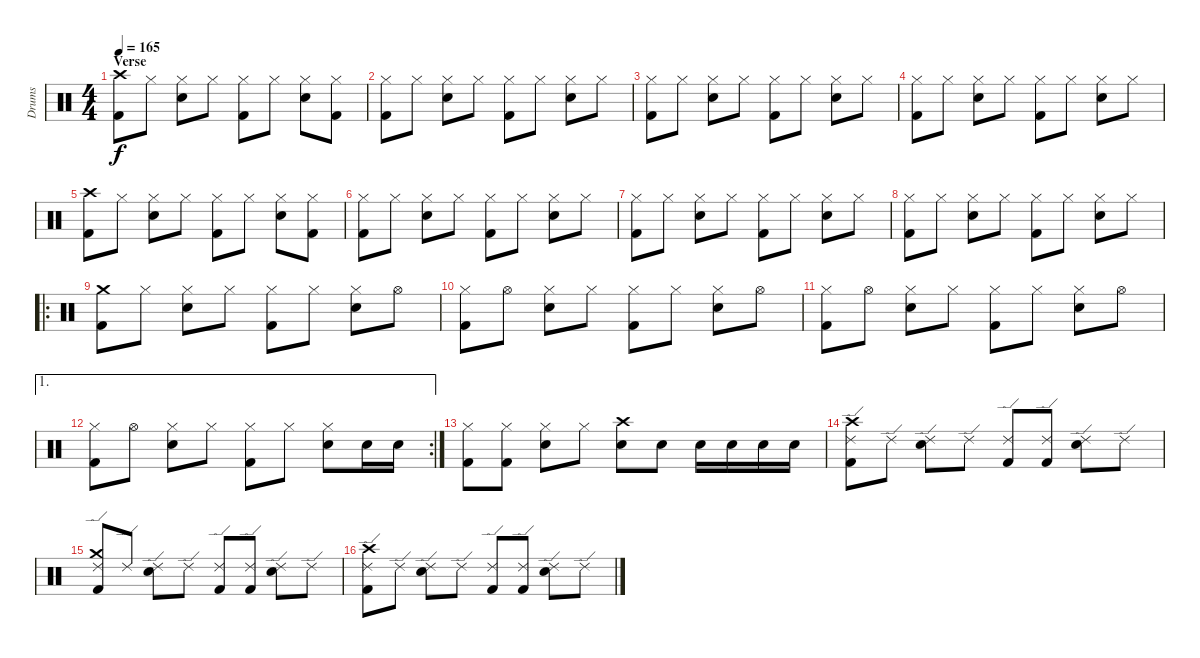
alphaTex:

\track ("Drums" "Drums") {instrument percussion}
\staff {score}
\articulation defaults
\ts (4 4)
\section ("" "Verse")
\tempo 165
\clef neutral
\ks c
("Crash high (hit)" "Kick (hit) 2").8{dy f} "Hi-Hat (closed)".8 ("Hi-Hat (closed)" "Snare (hit) 2").8 "Hi-Hat (closed)".8 ("Hi-Hat (closed)" "Kick (hit) 2").8 "Hi-Hat (closed)".8 ("Hi-Hat (closed)" "Snare (hit) 2").8 ("Hi-Hat (closed)" "Kick (hit) 2").8 |
("Hi-Hat (closed)" "Kick (hit) 2").8 "Hi-Hat (closed)".8 ("Hi-Hat (closed)" "Snare (hit) 2").8 "Hi-Hat (closed)".8 ("Hi-Hat (closed)" "Kick (hit) 2").8 "Hi-Hat (closed)".8 ("Hi-Hat (closed)" "Snare (hit) 2").8 "Hi-Hat (closed)".8 |
("Hi-Hat (closed)" "Kick (hit) 2").8 "Hi-Hat (closed)".8 ("Hi-Hat (closed)" "Snare (hit) 2").8 "Hi-Hat (closed)".8 ("Hi-Hat (closed)" "Kick (hit) 2").8 "Hi-Hat (closed)".8 ("Hi-Hat (closed)" "Snare (hit) 2").8 "Hi-Hat (closed)".8 |
("Hi-Hat (closed)" "Kick (hit) 2").8 "Hi-Hat (closed)".8 ("Hi-Hat (closed)" "Snare (hit) 2").8 "Hi-Hat (closed)".8 ("Hi-Hat (closed)" "Kick (hit) 2").8 "Hi-Hat (closed)".8 ("Hi-Hat (closed)" "Snare (hit) 2").8 "Hi-Hat (closed)".8 |
("Crash high (hit)" "Kick (hit) 2").8 "Hi-Hat (closed)".8 ("Hi-Hat (closed)" "Snare (hit) 2").8 "Hi-Hat (closed)".8 ("Hi-Hat (closed)" "Kick (hit) 2").8 "Hi-Hat (closed)".8 ("Hi-Hat (closed)" "Snare (hit) 2").8 ("Hi-Hat (closed)" "Kick (hit) 2").8 |
("Hi-Hat (closed)" "Kick (hit) 2").8 "Hi-Hat (closed)".8 ("Hi-Hat (closed)" "Snare (hit) 2").8 "Hi-Hat (closed)".8 ("Hi-Hat (closed)" "Kick (hit) 2").8 "Hi-Hat (closed)".8 ("Hi-Hat (closed)" "Snare (hit) 2").8 "Hi-Hat (closed)".8 |
("Hi-Hat (closed)" "Kick (hit) 2").8 "Hi-Hat (closed)".8 ("Hi-Hat (closed)" "Snare (hit) 2").8 "Hi-Hat (closed)".8 ("Hi-Hat (closed)" "Kick (hit) 2").8 "Hi-Hat (closed)".8 ("Hi-Hat (closed)" "Snare (hit) 2").8 "Hi-Hat (closed)".8 |
("Hi-Hat (closed)" "Kick (hit) 2").8 "Hi-Hat (closed)".8 ("Hi-Hat (closed)" "Snare (hit) 2").8 "Hi-Hat (closed)".8 ("Hi-Hat (closed)" "Kick (hit) 2").8 "Hi-Hat (closed)".8 ("Hi-Hat (closed)" "Snare (hit) 2").8 "Hi-Hat (closed)".8 |
\ro
("Crash medium (hit)" "Kick (hit) 2").8 "Hi-Hat (closed)".8 ("Hi-Hat (closed)" "Snare (hit) 2").8 "Hi-Hat (closed)".8 ("Hi-Hat (closed)" "Kick (hit) 2").8 "Hi-Hat (closed)".8 ("Hi-Hat (closed)" "Snare (hit) 2").8 "Hi-Hat (open)".8 |
("Hi-Hat (closed)" "Kick (hit) 2").8 "Hi-Hat (open)".8 ("Hi-Hat (closed)" "Snare (hit) 2").8 "Hi-Hat (closed)".8 ("Hi-Hat (closed)" "Kick (hit) 2").8 "Hi-Hat (closed)".8 ("Hi-Hat (closed)" "Snare (hit) 2").8 "Hi-Hat (open)".8 |
("Hi-Hat (closed)" "Kick (hit) 2").8 "Hi-Hat (open)".8 ("Hi-Hat (closed)" "Snare (hit) 2").8 "Hi-Hat (closed)".8 ("Hi-Hat (closed)" "Kick (hit) 2").8 "Hi-Hat (closed)".8 ("Hi-Hat (closed)" "Snare (hit) 2").8 "Hi-Hat (open)".8 |
\ae 1
\rc 2
("Hi-Hat (closed)" "Kick (hit) 2").8 "Hi-Hat (open)".8 ("Hi-Hat (closed)" "Snare (hit) 2").8 "Hi-Hat (closed)".8 ("Hi-Hat (closed)" "Kick (hit) 2").8 "Hi-Hat (closed)".8 ("Hi-Hat (closed)" "Snare (hit) 2").8 "Snare (hit) 2".16 "Snare (hit) 2".16 |
("Hi-Hat (closed)" "Kick (hit) 2").8 ("Hi-Hat (closed)" "Kick (hit) 2").8 ("Hi-Hat (closed)" "Snare (hit) 2").8 "Hi-Hat (closed)".8 ("Crash high (hit)" "Snare (hit) 2").8 "Snare (hit) 2".8 "Snare (hit) 2".16 "Snare (hit) 2".16 "Snare (hit) 2".16 "Snare (hit) 2".16 |
("Crash high (hit)" "Ride (edge) 2" "Kick (hit) 2").8 "Ride (edge) 2".8 ("Ride (edge) 2" "Snare (hit) 2").8 "Ride (edge) 2".8 ("Ride (edge) 2" "Kick (hit) 2").8 ("Ride (edge) 2" "Kick (hit) 2").8 ("Ride (edge) 2" "Snare (hit) 2").8 "Ride (edge) 2".8 |
("Crash medium (hit)" "Ride (edge) 2" "Kick (hit) 2").8 "Ride (edge) 2".8 ("Ride (edge) 2" "Snare (hit) 2").8 "Ride (edge) 2".8 ("Ride (edge) 2" "Kick (hit) 2").8 ("Ride (edge) 2" "Kick (hit) 2").8 ("Ride (edge) 2" "Snare (hit) 2").8 "Ride (edge) 2".8 |
("Crash high (hit)" "Ride (edge) 2" "Kick (hit) 2").8 "Ride (edge) 2".8 ("Ride (edge) 2" "Snare (hit) 2").8 "Ride (edge) 2".8 ("Ride (edge) 2" "Kick (hit) 2").8 ("Ride (edge) 2" "Kick (hit) 2").8 ("Ride (edge) 2" "Snare (hit) 2").8 "Ride (edge) 2".8
